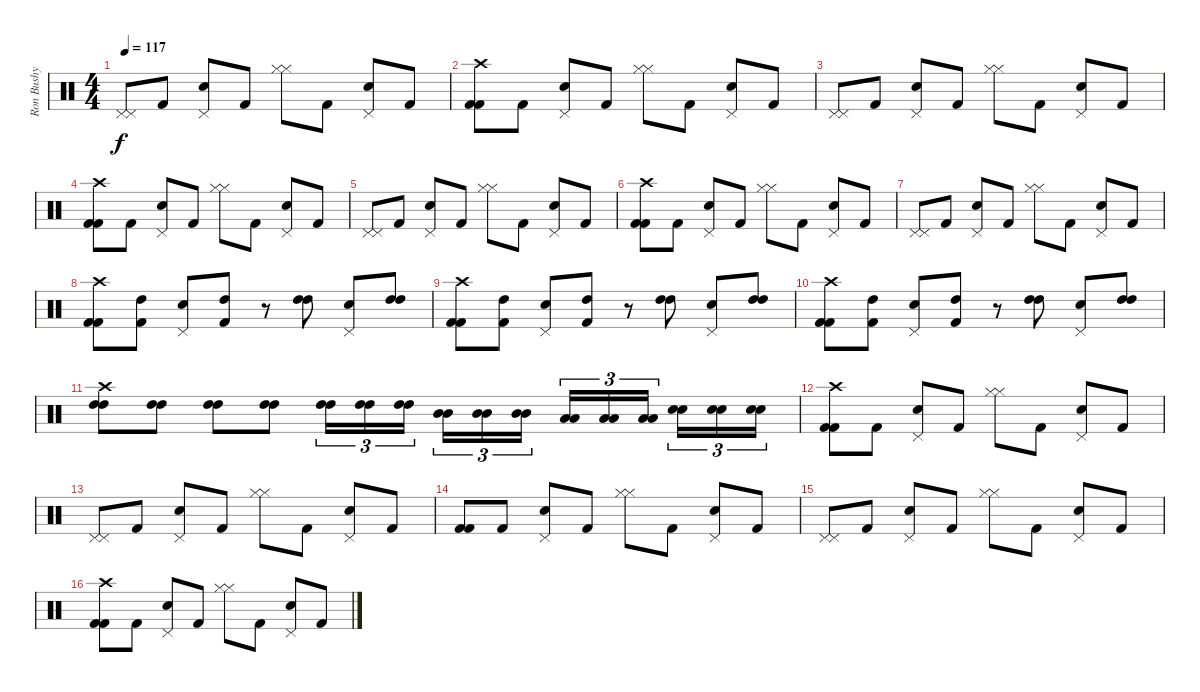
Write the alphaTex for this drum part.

\track ("Ron Bushy" "Ron Bushy") {instrument percussion}
\staff {score}
\articulation defaults
\ts (4 4)
\tempo 117
\clef neutral
\ks c
("Pedal Hi-Hat (hit)" "Pedal Hi-Hat (hit)").8{dy f} "Kick (hit) 2".8 ("Pedal Hi-Hat (hit)" "Snare (hit) 2").8 "Kick (hit) 2".8 ("Hi-Hat (closed)" "Hi-Hat (closed)").8 "Kick (hit) 2".8 ("Pedal Hi-Hat (hit)" "Snare (hit) 2").8 "Kick (hit) 2".8 |
("Crash high (hit)" "Kick (hit) 2" "Kick (hit) 2").8 "Kick (hit) 2".8 ("Pedal Hi-Hat (hit)" "Snare (hit) 2").8 "Kick (hit) 2".8 ("Hi-Hat (closed)" "Hi-Hat (closed)").8 "Kick (hit) 2".8 ("Pedal Hi-Hat (hit)" "Snare (hit) 2").8 "Kick (hit) 2".8 |
("Pedal Hi-Hat (hit)" "Pedal Hi-Hat (hit)").8 "Kick (hit) 2".8 ("Pedal Hi-Hat (hit)" "Snare (hit) 2").8 "Kick (hit) 2".8 ("Hi-Hat (closed)" "Hi-Hat (closed)").8 "Kick (hit) 2".8 ("Pedal Hi-Hat (hit)" "Snare (hit) 2").8 "Kick (hit) 2".8 |
("Crash high (hit)" "Kick (hit) 2" "Kick (hit) 2").8 "Kick (hit) 2".8 ("Pedal Hi-Hat (hit)" "Snare (hit) 2").8 "Kick (hit) 2".8 ("Hi-Hat (closed)" "Hi-Hat (closed)").8 "Kick (hit) 2".8 ("Pedal Hi-Hat (hit)" "Snare (hit) 2").8 "Kick (hit) 2".8 |
("Pedal Hi-Hat (hit)" "Pedal Hi-Hat (hit)").8 "Kick (hit) 2".8 ("Pedal Hi-Hat (hit)" "Snare (hit) 2").8 "Kick (hit) 2".8 ("Hi-Hat (closed)" "Hi-Hat (closed)").8 "Kick (hit) 2".8 ("Pedal Hi-Hat (hit)" "Snare (hit) 2").8 "Kick (hit) 2".8 |
("Crash high (hit)" "Kick (hit) 2" "Kick (hit) 2").8 "Kick (hit) 2".8 ("Pedal Hi-Hat (hit)" "Snare (hit) 2").8 "Kick (hit) 2".8 ("Hi-Hat (closed)" "Hi-Hat (closed)").8 "Kick (hit) 2".8 ("Pedal Hi-Hat (hit)" "Snare (hit) 2").8 "Kick (hit) 2".8 |
("Pedal Hi-Hat (hit)" "Pedal Hi-Hat (hit)").8 "Kick (hit) 2".8 ("Pedal Hi-Hat (hit)" "Snare (hit) 2").8 "Kick (hit) 2".8 ("Hi-Hat (closed)" "Hi-Hat (closed)").8 "Kick (hit) 2".8 ("Pedal Hi-Hat (hit)" "Snare (hit) 2").8 "Kick (hit) 2".8 |
("Crash high (hit)" "Kick (hit) 2" "Kick (hit) 2").8 ("High Tom (hit)" "Kick (hit) 2").8 ("Pedal Hi-Hat (hit)" "Snare (hit) 2").8 ("Kick (hit) 2" "High Tom (hit)").8 r.8 ("High Tom (hit)" "High Tom (hit)").8 ("Pedal Hi-Hat (hit)" "Snare (hit) 2").8 ("High Tom (hit)" "High Tom (hit)").8 |
("Crash high (hit)" "Kick (hit) 2" "Kick (hit) 2").8 ("High Tom (hit)" "Kick (hit) 2").8 ("Pedal Hi-Hat (hit)" "Snare (hit) 2").8 ("Kick (hit) 2" "High Tom (hit)").8 r.8 ("High Tom (hit)" "High Tom (hit)").8 ("Pedal Hi-Hat (hit)" "Snare (hit) 2").8 ("High Tom (hit)" "High Tom (hit)").8 |
("Crash high (hit)" "Kick (hit) 2" "Kick (hit) 2").8 ("High Tom (hit)" "Kick (hit) 2").8 ("Pedal Hi-Hat (hit)" "Snare (hit) 2").8 ("Kick (hit) 2" "High Tom (hit)").8 r.8 ("High Tom (hit)" "High Tom (hit)").8 ("Pedal Hi-Hat (hit)" "Snare (hit) 2").8 ("High Tom (hit)" "High Tom (hit)").8 |
("Crash high (hit)" "High Tom (hit)" "High Tom (hit)").8 ("High Tom (hit)" "High Tom (hit)").8 ("High Tom (hit)" "High Tom (hit)").8 ("High Tom (hit)" "High Tom (hit)").8 ("High Tom (hit)" "High Tom (hit)").16{tu (3 2)} ("High Tom (hit)" "High Tom (hit)").16{tu (3 2)} ("High Tom (hit)" "High Tom (hit)").16{tu (3 2)} ("Mid Tom (hit)" "Mid Tom (hit)").16{tu (3 2)} ("Mid Tom (hit)" "Mid Tom (hit)").16{tu (3 2)} ("Mid Tom (hit)" "Mid Tom (hit)").16{tu (3 2)} ("Low Tom (hit)" "Low Tom (hit)").16{tu (3 2)} ("Low Tom (hit)" "Low Tom (hit)").16{tu (3 2)} ("Low Tom (hit)" "Low Tom (hit)").16{tu (3 2)} ("Snare (hit) 2" "Snare (hit) 2").16{tu (3 2)} ("Snare (hit) 2" "Snare (hit) 2").16{tu (3 2)} ("Snare (hit) 2" "Snare (hit) 2").16{tu (3 2)} |
("Crash high (hit)" "Kick (hit) 2" "Kick (hit) 2").8 "Kick (hit) 2".8 ("Pedal Hi-Hat (hit)" "Snare (hit) 2").8 "Kick (hit) 2".8 ("Hi-Hat (closed)" "Hi-Hat (closed)").8 "Kick (hit) 2".8 ("Pedal Hi-Hat (hit)" "Snare (hit) 2").8 "Kick (hit) 2".8 |
("Pedal Hi-Hat (hit)" "Pedal Hi-Hat (hit)").8 "Kick (hit) 2".8 ("Pedal Hi-Hat (hit)" "Snare (hit) 2").8 "Kick (hit) 2".8 ("Hi-Hat (closed)" "Hi-Hat (closed)").8 "Kick (hit) 2".8 ("Pedal Hi-Hat (hit)" "Snare (hit) 2").8 "Kick (hit) 2".8 |
("Kick (hit) 2" "Kick (hit) 2").8 "Kick (hit) 2".8 ("Pedal Hi-Hat (hit)" "Snare (hit) 2").8 "Kick (hit) 2".8 ("Hi-Hat (closed)" "Hi-Hat (closed)").8 "Kick (hit) 2".8 ("Pedal Hi-Hat (hit)" "Snare (hit) 2").8 "Kick (hit) 2".8 |
("Pedal Hi-Hat (hit)" "Pedal Hi-Hat (hit)").8 "Kick (hit) 2".8 ("Pedal Hi-Hat (hit)" "Snare (hit) 2").8 "Kick (hit) 2".8 ("Hi-Hat (closed)" "Hi-Hat (closed)").8 "Kick (hit) 2".8 ("Pedal Hi-Hat (hit)" "Snare (hit) 2").8 "Kick (hit) 2".8 |
("Crash high (hit)" "Kick (hit) 2" "Kick (hit) 2").8 "Kick (hit) 2".8 ("Pedal Hi-Hat (hit)" "Snare (hit) 2").8 "Kick (hit) 2".8 ("Hi-Hat (closed)" "Hi-Hat (closed)").8 "Kick (hit) 2".8 ("Pedal Hi-Hat (hit)" "Snare (hit) 2").8 "Kick (hit) 2".8
